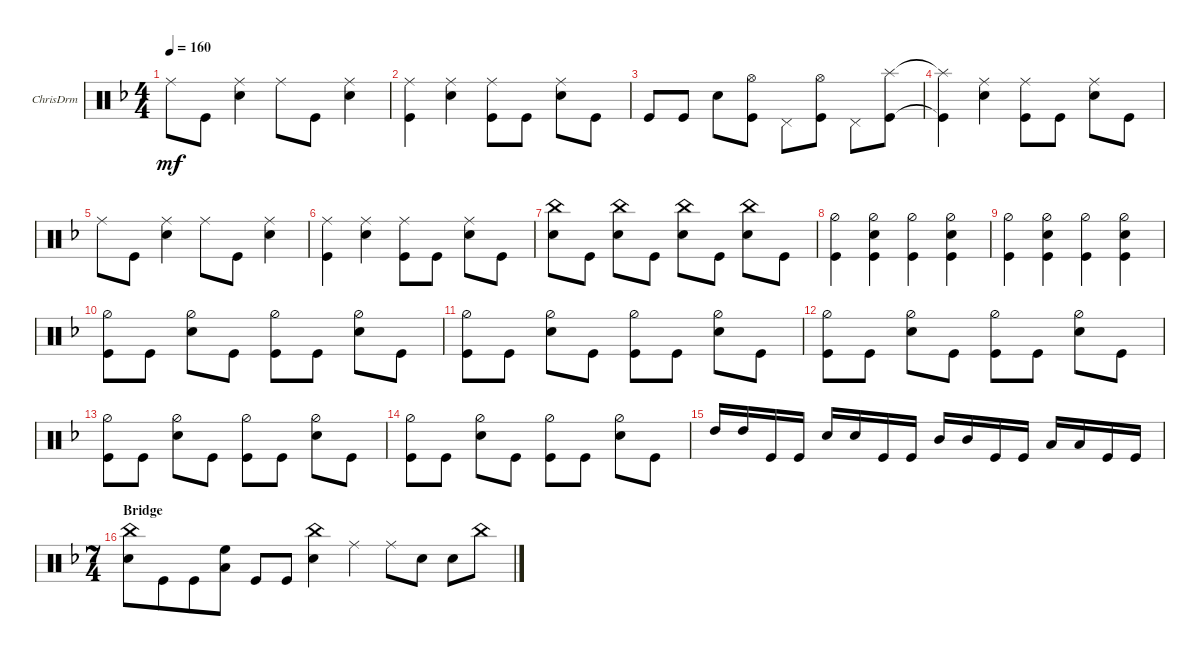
\defaultSystemsLayout 4
\bracketExtendMode groupsimilarinstruments
\firstSystemTrackNameOrientation horizontal
\otherSystemsTrackNameOrientation horizontal
\track ("Drumkit" "ChrisDrm") {instrument percussion}
\staff {score}
\articulation defaults
\ts (4 4)
\tempo 160
\clef neutral
\ks dminor "Ride (middle)".8{dy mf} "Kick (hit)".8
("Snare (hit) 2" "Ride (middle)").4 "Ride (middle)".8 "Kick (hit)".8 ("Snare (hit) 2" "Ride (middle)").4 |
("Ride (middle)" "Kick (hit)").4 ("Snare (hit) 2" "Ride (middle)").4 ("Ride (middle)" "Kick (hit)").8 "Kick (hit)".8 ("Snare (hit) 2" "Ride (middle)").8 "Kick (hit)".8 |
"Kick (hit)".8 "Kick (hit)".8 "Snare (hit) 2".8 ("Kick (hit)" "Hi-Hat (open)").8 "Pedal Hi-Hat (hit)".8 ("Kick (hit)" "Hi-Hat (open)").8 "Pedal Hi-Hat (hit)".8 ("Kick (hit)" "Splash (hit)").8 |
("Kick (hit)"{t} "Splash (hit)"{t}).4 ("Snare (hit) 2" "Ride (middle)").4 ("Ride (middle)" "Kick (hit)").8 "Kick (hit)".8 ("Snare (hit) 2" "Ride (middle)").8 "Kick (hit)".8 |
"Ride (middle)".8 "Kick (hit)".8 ("Snare (hit) 2" "Ride (middle)").4 "Ride (middle)".8 "Kick (hit)".8 ("Snare (hit) 2" "Ride (middle)").4 |
("Ride (middle)" "Kick (hit)").4 ("Snare (hit) 2" "Ride (middle)").4 ("Ride (middle)" "Kick (hit)").8 "Kick (hit)".8 ("Snare (hit) 2" "Ride (middle)").8 "Kick (hit)".8 |
("Snare (hit) 2" "China (hit)").8 "Kick (hit)".8 ("Snare (hit) 2" "China (hit)").8 "Kick (hit)".8 ("Snare (hit) 2" "China (hit)").8 "Kick (hit)".8 ("Snare (hit) 2" "China (hit)").8 "Kick (hit)".8 |
("Hi-Hat (half)" "Kick (hit)").4 ("Hi-Hat (half)" "Snare (hit) 2" "Kick (hit)").4 ("Hi-Hat (half)" "Kick (hit)").4 ("Hi-Hat (half)" "Snare (hit) 2" "Kick (hit)").4 |
("Hi-Hat (half)" "Kick (hit)").4 ("Hi-Hat (half)" "Kick (hit)" "Snare (hit) 2").4 ("Hi-Hat (half)" "Kick (hit)").4 ("Hi-Hat (half)" "Kick (hit)" "Snare (hit) 2").4 |
("Kick (hit)" "Hi-Hat (half)").8 "Kick (hit)".8 ("Snare (hit) 2" "Hi-Hat (half)").8 "Kick (hit)".8 ("Kick (hit)" "Hi-Hat (half)").8 "Kick (hit)".8 ("Snare (hit) 2" "Hi-Hat (half)").8 "Kick (hit)".8 |
("Kick (hit)" "Hi-Hat (half)").8 "Kick (hit)".8 ("Snare (hit) 2" "Hi-Hat (half)").8 "Kick (hit)".8 ("Kick (hit)" "Hi-Hat (half)").8 "Kick (hit)".8 ("Snare (hit) 2" "Hi-Hat (half)").8 "Kick (hit)".8 |
("Kick (hit)" "Hi-Hat (half)").8 "Kick (hit)".8 ("Snare (hit) 2" "Hi-Hat (half)").8 "Kick (hit)".8 ("Kick (hit)" "Hi-Hat (half)").8 "Kick (hit)".8 ("Snare (hit) 2" "Hi-Hat (half)").8 "Kick (hit)".8 |
("Kick (hit)" "Hi-Hat (half)").8 "Kick (hit)".8 ("Snare (hit) 2" "Hi-Hat (half)").8 "Kick (hit)".8 ("Kick (hit)" "Hi-Hat (half)").8 "Kick (hit)".8 ("Snare (hit) 2" "Hi-Hat (half)").8 "Kick (hit)".8 |
("Kick (hit)" "Hi-Hat (half)").8 "Kick (hit)".8 ("Snare (hit) 2" "Hi-Hat (half)").8 "Kick (hit)".8 ("Kick (hit)" "Hi-Hat (half)").8 "Kick (hit)".8 ("Snare (hit) 2" "Hi-Hat (half)").8 "Kick (hit)".8 |
"High Tom (hit)".16 "High Tom (hit)".16 "Kick (hit)".16 "Kick (hit)".16 "Snare (hit) 2".16 "Snare (hit) 2".16 "Kick (hit)".16 "Kick (hit)".16 "Mid Tom (hit)".16 "Mid Tom (hit)".16 "Kick (hit)".16 "Kick (hit)".16 "Low Tom (hit)".16 "Low Tom (hit)".16 "Kick (hit)".16 "Kick (hit)".16 |
\ts (7 4)
\beaming (8 4 4 4 2)
\section ("" "Bridge")
("Snare (hit) 2" "China (hit)").8 "Kick (hit)".8 "Kick (hit)".8 ("High Floor Tom (hit)" "Low Tom (hit)").8 "Kick (hit)".8 "Kick (hit)".8 ("Snare (hit) 2" "China (hit)").4 "Ride (middle)".4 "Ride (middle)".8 "Snare (hit) 2".8 "Snare (hit) 2".8 "China (hit)".8
